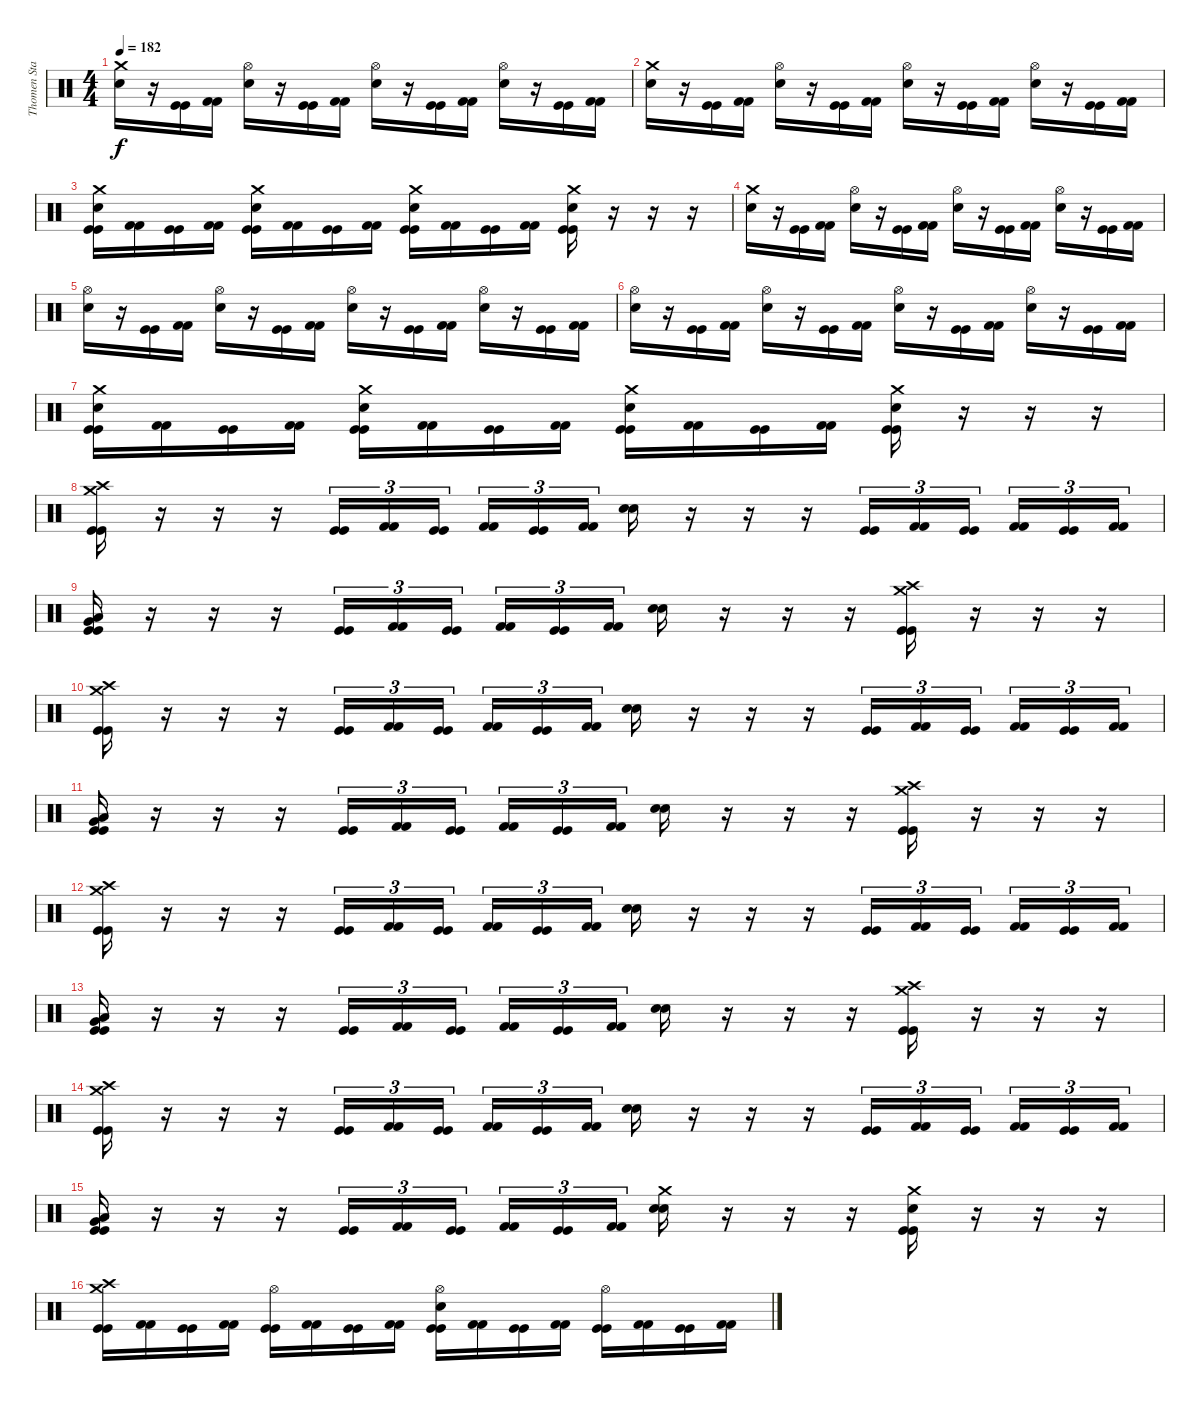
\track ("Thomen Stauch" "Thomen Sta") {instrument percussion}
\staff {score}
\articulation defaults
\ts (4 4)
\tempo 182
\clef neutral
\ks c
("Crash medium (hit)" "Snare (hit) 2").16{dy f} r.16 ("Kick (hit)" "Kick (hit)").16 ("Kick (hit) 2" "Kick (hit) 2").16 ("Hi-Hat (open)" "Snare (hit) 2").16 r.16 ("Kick (hit)" "Kick (hit)").16 ("Kick (hit) 2" "Kick (hit) 2").16 ("Hi-Hat (open)" "Snare (hit) 2").16 r.16 ("Kick (hit)" "Kick (hit)").16 ("Kick (hit) 2" "Kick (hit) 2").16 ("Hi-Hat (open)" "Snare (hit) 2").16 r.16 ("Kick (hit)" "Kick (hit)").16 ("Kick (hit) 2" "Kick (hit) 2").16 |
("Crash medium (hit)" "Snare (hit) 2").16 r.16 ("Kick (hit)" "Kick (hit)").16 ("Kick (hit) 2" "Kick (hit) 2").16 ("Hi-Hat (open)" "Snare (hit) 2").16 r.16 ("Kick (hit)" "Kick (hit)").16 ("Kick (hit) 2" "Kick (hit) 2").16 ("Hi-Hat (open)" "Snare (hit) 2").16 r.16 ("Kick (hit)" "Kick (hit)").16 ("Kick (hit) 2" "Kick (hit) 2").16 ("Hi-Hat (open)" "Snare (hit) 2").16 r.16 ("Kick (hit)" "Kick (hit)").16 ("Kick (hit) 2" "Kick (hit) 2").16 |
("Crash medium (hit)" "Snare (hit) 2" "Kick (hit)" "Kick (hit)").16 ("Kick (hit) 2" "Kick (hit) 2").16 ("Kick (hit)" "Kick (hit)").16 ("Kick (hit) 2" "Kick (hit) 2").16 ("Crash medium (hit)" "Snare (hit) 2" "Kick (hit)" "Kick (hit)").16 ("Kick (hit) 2" "Kick (hit) 2").16 ("Kick (hit)" "Kick (hit)").16 ("Kick (hit) 2" "Kick (hit) 2").16 ("Crash medium (hit)" "Snare (hit) 2" "Kick (hit)" "Kick (hit)").16 ("Kick (hit) 2" "Kick (hit) 2").16 ("Kick (hit)" "Kick (hit)").16 ("Kick (hit) 2" "Kick (hit) 2").16 ("Crash medium (hit)" "Snare (hit) 2" "Kick (hit)" "Kick (hit)").16 r.16 r.16 r.16 |
("Crash medium (hit)" "Snare (hit) 2").16 r.16 ("Kick (hit)" "Kick (hit)").16 ("Kick (hit) 2" "Kick (hit) 2").16 ("Hi-Hat (open)" "Snare (hit) 2").16 r.16 ("Kick (hit)" "Kick (hit)").16 ("Kick (hit) 2" "Kick (hit) 2").16 ("Hi-Hat (open)" "Snare (hit) 2").16 r.16 ("Kick (hit)" "Kick (hit)").16 ("Kick (hit) 2" "Kick (hit) 2").16 ("Hi-Hat (open)" "Snare (hit) 2").16 r.16 ("Kick (hit)" "Kick (hit)").16 ("Kick (hit) 2" "Kick (hit) 2").16 |
("Hi-Hat (open)" "Snare (hit) 2").16 r.16 ("Kick (hit)" "Kick (hit)").16 ("Kick (hit) 2" "Kick (hit) 2").16 ("Hi-Hat (open)" "Snare (hit) 2").16 r.16 ("Kick (hit)" "Kick (hit)").16 ("Kick (hit) 2" "Kick (hit) 2").16 ("Hi-Hat (open)" "Snare (hit) 2").16 r.16 ("Kick (hit)" "Kick (hit)").16 ("Kick (hit) 2" "Kick (hit) 2").16 ("Hi-Hat (open)" "Snare (hit) 2").16 r.16 ("Kick (hit)" "Kick (hit)").16 ("Kick (hit) 2" "Kick (hit) 2").16 |
("Hi-Hat (open)" "Snare (hit) 2").16 r.16 ("Kick (hit)" "Kick (hit)").16 ("Kick (hit) 2" "Kick (hit) 2").16 ("Hi-Hat (open)" "Snare (hit) 2").16 r.16 ("Kick (hit)" "Kick (hit)").16 ("Kick (hit) 2" "Kick (hit) 2").16 ("Hi-Hat (open)" "Snare (hit) 2").16 r.16 ("Kick (hit)" "Kick (hit)").16 ("Kick (hit) 2" "Kick (hit) 2").16 ("Hi-Hat (open)" "Snare (hit) 2").16 r.16 ("Kick (hit)" "Kick (hit)").16 ("Kick (hit) 2" "Kick (hit) 2").16 |
("Crash medium (hit)" "Snare (hit) 2" "Kick (hit)" "Kick (hit)").16 ("Kick (hit) 2" "Kick (hit) 2").16 ("Kick (hit)" "Kick (hit)").16 ("Kick (hit) 2" "Kick (hit) 2").16 ("Crash medium (hit)" "Snare (hit) 2" "Kick (hit)" "Kick (hit)").16 ("Kick (hit) 2" "Kick (hit) 2").16 ("Kick (hit)" "Kick (hit)").16 ("Kick (hit) 2" "Kick (hit) 2").16 ("Crash medium (hit)" "Snare (hit) 2" "Kick (hit)" "Kick (hit)").16 ("Kick (hit) 2" "Kick (hit) 2").16 ("Kick (hit)" "Kick (hit)").16 ("Kick (hit) 2" "Kick (hit) 2").16 ("Crash medium (hit)" "Snare (hit) 2" "Kick (hit)" "Kick (hit)").16 r.16 r.16 r.16 |
("Crash medium (hit)" "Crash high (hit)" "Kick (hit)" "Kick (hit)").16 r.16 r.16 r.16 ("Kick (hit)" "Kick (hit)").16{tu (3 2)} ("Kick (hit) 2" "Kick (hit) 2").16{tu (3 2)} ("Kick (hit)" "Kick (hit)").16{tu (3 2)} ("Kick (hit) 2" "Kick (hit) 2").16{tu (3 2)} ("Kick (hit)" "Kick (hit)").16{tu (3 2)} ("Kick (hit) 2" "Kick (hit) 2").16{tu (3 2)} ("Snare (hit) 2" "Snare (hit) 2").16 r.16 r.16 r.16 ("Kick (hit)" "Kick (hit)").16{tu (3 2)} ("Kick (hit) 2" "Kick (hit) 2").16{tu (3 2)} ("Kick (hit)" "Kick (hit)").16{tu (3 2)} ("Kick (hit) 2" "Kick (hit) 2").16{tu (3 2)} ("Kick (hit)" "Kick (hit)").16{tu (3 2)} ("Kick (hit) 2" "Kick (hit) 2").16{tu (3 2)} |
("Very Low Tom (hit)" "Low Tom (hit)" "Kick (hit)" "Kick (hit)").16 r.16 r.16 r.16 ("Kick (hit)" "Kick (hit)").16{tu (3 2)} ("Kick (hit) 2" "Kick (hit) 2").16{tu (3 2)} ("Kick (hit)" "Kick (hit)").16{tu (3 2)} ("Kick (hit) 2" "Kick (hit) 2").16{tu (3 2)} ("Kick (hit)" "Kick (hit)").16{tu (3 2)} ("Kick (hit) 2" "Kick (hit) 2").16{tu (3 2)} ("Snare (hit) 2" "Snare (hit) 2").16 r.16 r.16 r.16 ("Crash medium (hit)" "Crash high (hit)" "Kick (hit)" "Kick (hit)").16 r.16 r.16 r.16 |
("Crash medium (hit)" "Crash high (hit)" "Kick (hit)" "Kick (hit)").16 r.16 r.16 r.16 ("Kick (hit)" "Kick (hit)").16{tu (3 2)} ("Kick (hit) 2" "Kick (hit) 2").16{tu (3 2)} ("Kick (hit)" "Kick (hit)").16{tu (3 2)} ("Kick (hit) 2" "Kick (hit) 2").16{tu (3 2)} ("Kick (hit)" "Kick (hit)").16{tu (3 2)} ("Kick (hit) 2" "Kick (hit) 2").16{tu (3 2)} ("Snare (hit) 2" "Snare (hit) 2").16 r.16 r.16 r.16 ("Kick (hit)" "Kick (hit)").16{tu (3 2)} ("Kick (hit) 2" "Kick (hit) 2").16{tu (3 2)} ("Kick (hit)" "Kick (hit)").16{tu (3 2)} ("Kick (hit) 2" "Kick (hit) 2").16{tu (3 2)} ("Kick (hit)" "Kick (hit)").16{tu (3 2)} ("Kick (hit) 2" "Kick (hit) 2").16{tu (3 2)} |
("Very Low Tom (hit)" "Low Tom (hit)" "Kick (hit)" "Kick (hit)").16 r.16 r.16 r.16 ("Kick (hit)" "Kick (hit)").16{tu (3 2)} ("Kick (hit) 2" "Kick (hit) 2").16{tu (3 2)} ("Kick (hit)" "Kick (hit)").16{tu (3 2)} ("Kick (hit) 2" "Kick (hit) 2").16{tu (3 2)} ("Kick (hit)" "Kick (hit)").16{tu (3 2)} ("Kick (hit) 2" "Kick (hit) 2").16{tu (3 2)} ("Snare (hit) 2" "Snare (hit) 2").16 r.16 r.16 r.16 ("Crash medium (hit)" "Crash high (hit)" "Kick (hit)" "Kick (hit)").16 r.16 r.16 r.16 |
("Crash medium (hit)" "Crash high (hit)" "Kick (hit)" "Kick (hit)").16 r.16 r.16 r.16 ("Kick (hit)" "Kick (hit)").16{tu (3 2)} ("Kick (hit) 2" "Kick (hit) 2").16{tu (3 2)} ("Kick (hit)" "Kick (hit)").16{tu (3 2)} ("Kick (hit) 2" "Kick (hit) 2").16{tu (3 2)} ("Kick (hit)" "Kick (hit)").16{tu (3 2)} ("Kick (hit) 2" "Kick (hit) 2").16{tu (3 2)} ("Snare (hit) 2" "Snare (hit) 2").16 r.16 r.16 r.16 ("Kick (hit)" "Kick (hit)").16{tu (3 2)} ("Kick (hit) 2" "Kick (hit) 2").16{tu (3 2)} ("Kick (hit)" "Kick (hit)").16{tu (3 2)} ("Kick (hit) 2" "Kick (hit) 2").16{tu (3 2)} ("Kick (hit)" "Kick (hit)").16{tu (3 2)} ("Kick (hit) 2" "Kick (hit) 2").16{tu (3 2)} |
("Very Low Tom (hit)" "Low Tom (hit)" "Kick (hit)" "Kick (hit)").16 r.16 r.16 r.16 ("Kick (hit)" "Kick (hit)").16{tu (3 2)} ("Kick (hit) 2" "Kick (hit) 2").16{tu (3 2)} ("Kick (hit)" "Kick (hit)").16{tu (3 2)} ("Kick (hit) 2" "Kick (hit) 2").16{tu (3 2)} ("Kick (hit)" "Kick (hit)").16{tu (3 2)} ("Kick (hit) 2" "Kick (hit) 2").16{tu (3 2)} ("Snare (hit) 2" "Snare (hit) 2").16 r.16 r.16 r.16 ("Crash medium (hit)" "Crash high (hit)" "Kick (hit)" "Kick (hit)").16 r.16 r.16 r.16 |
("Crash medium (hit)" "Crash high (hit)" "Kick (hit)" "Kick (hit)").16 r.16 r.16 r.16 ("Kick (hit)" "Kick (hit)").16{tu (3 2)} ("Kick (hit) 2" "Kick (hit) 2").16{tu (3 2)} ("Kick (hit)" "Kick (hit)").16{tu (3 2)} ("Kick (hit) 2" "Kick (hit) 2").16{tu (3 2)} ("Kick (hit)" "Kick (hit)").16{tu (3 2)} ("Kick (hit) 2" "Kick (hit) 2").16{tu (3 2)} ("Snare (hit) 2" "Snare (hit) 2").16 r.16 r.16 r.16 ("Kick (hit)" "Kick (hit)").16{tu (3 2)} ("Kick (hit) 2" "Kick (hit) 2").16{tu (3 2)} ("Kick (hit)" "Kick (hit)").16{tu (3 2)} ("Kick (hit) 2" "Kick (hit) 2").16{tu (3 2)} ("Kick (hit)" "Kick (hit)").16{tu (3 2)} ("Kick (hit) 2" "Kick (hit) 2").16{tu (3 2)} |
("Very Low Tom (hit)" "Low Tom (hit)" "Kick (hit)" "Kick (hit)").16 r.16 r.16 r.16 ("Kick (hit)" "Kick (hit)").16{tu (3 2)} ("Kick (hit) 2" "Kick (hit) 2").16{tu (3 2)} ("Kick (hit)" "Kick (hit)").16{tu (3 2)} ("Kick (hit) 2" "Kick (hit) 2").16{tu (3 2)} ("Kick (hit)" "Kick (hit)").16{tu (3 2)} ("Kick (hit) 2" "Kick (hit) 2").16{tu (3 2)} ("Crash medium (hit)" "Snare (hit) 2" "Snare (hit) 2").16 r.16 r.16 r.16 ("Crash medium (hit)" "Snare (hit) 2" "Kick (hit)" "Kick (hit)").16 r.16 r.16 r.16 |
("Crash medium (hit)" "Crash high (hit)" "Kick (hit)" "Kick (hit)").16 ("Kick (hit) 2" "Kick (hit) 2").16 ("Kick (hit)" "Kick (hit)").16 ("Kick (hit) 2" "Kick (hit) 2").16 ("Hi-Hat (open)" "Kick (hit)" "Kick (hit)").16 ("Kick (hit) 2" "Kick (hit) 2").16 ("Kick (hit)" "Kick (hit)").16 ("Kick (hit) 2" "Kick (hit) 2").16 ("Hi-Hat (open)" "Snare (hit) 2" "Kick (hit)" "Kick (hit)").16 ("Kick (hit) 2" "Kick (hit) 2").16 ("Kick (hit)" "Kick (hit)").16 ("Kick (hit) 2" "Kick (hit) 2").16 ("Hi-Hat (open)" "Kick (hit)" "Kick (hit)").16 ("Kick (hit) 2" "Kick (hit) 2").16 ("Kick (hit)" "Kick (hit)").16 ("Kick (hit) 2" "Kick (hit) 2").16
